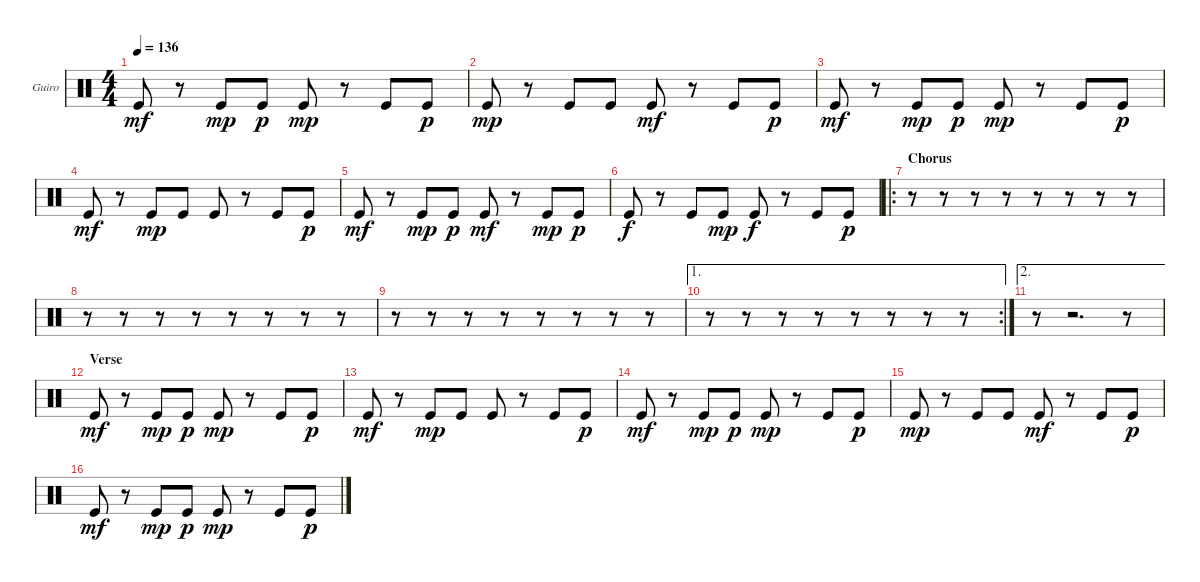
\bracketExtendMode groupsimilarinstruments
\firstSystemTrackNameOrientation horizontal
\otherSystemsTrackNameOrientation horizontal
\track ("Guiro" "Guiro") {instrument percussion}
\staff {score}
\articulation defaults
\ts (4 4)
\tempo 136
\clef neutral
\ks c "Kick (hit)".8{dy mf}
r.8 "Kick (hit)".8{dy mp} "Kick (hit)".8{dy p} "Kick (hit)".8{dy mp} r.8 "Kick (hit)".8 "Kick (hit)".8{dy p} |
"Kick (hit)".8{dy mp} r.8 "Kick (hit)".8 "Kick (hit)".8 "Kick (hit)".8{dy mf} r.8 "Kick (hit)".8 "Kick (hit)".8{dy p} |
"Kick (hit)".8{dy mf} r.8 "Kick (hit)".8{dy mp} "Kick (hit)".8{dy p} "Kick (hit)".8{dy mp} r.8 "Kick (hit)".8 "Kick (hit)".8{dy p} |
"Kick (hit)".8{dy mf} r.8 "Kick (hit)".8{dy mp} "Kick (hit)".8 "Kick (hit)".8 r.8 "Kick (hit)".8 "Kick (hit)".8{dy p} |
"Kick (hit)".8{dy mf} r.8 "Kick (hit)".8{dy mp} "Kick (hit)".8{dy p} "Kick (hit)".8{dy mf} r.8 "Kick (hit)".8{dy mp} "Kick (hit)".8{dy p} |
"Kick (hit)".8{dy f} r.8 "Kick (hit)".8 "Kick (hit)".8{dy mp} "Kick (hit)".8{dy f} r.8 "Kick (hit)".8 "Kick (hit)".8{dy p} |
\ro
\section ("" "Chorus")
r.8 r.8 r.8 r.8 r.8 r.8 r.8 r.8 |
r.8 r.8 r.8 r.8 r.8 r.8 r.8 r.8 |
r.8 r.8 r.8 r.8 r.8 r.8 r.8 r.8 |
\ae 1
\rc 2
r.8 r.8 r.8 r.8 r.8 r.8 r.8 r.8 |
\ae 2
r.8 r.2{d} r.8 |
\section ("" "Verse")
"Kick (hit)".8{dy mf} r.8 "Kick (hit)".8{dy mp} "Kick (hit)".8{dy p} "Kick (hit)".8{dy mp} r.8 "Kick (hit)".8 "Kick (hit)".8{dy p} |
"Kick (hit)".8{dy mf} r.8 "Kick (hit)".8{dy mp} "Kick (hit)".8 "Kick (hit)".8 r.8 "Kick (hit)".8 "Kick (hit)".8{dy p} |
"Kick (hit)".8{dy mf} r.8 "Kick (hit)".8{dy mp} "Kick (hit)".8{dy p} "Kick (hit)".8{dy mp} r.8 "Kick (hit)".8 "Kick (hit)".8{dy p} |
"Kick (hit)".8{dy mp} r.8 "Kick (hit)".8 "Kick (hit)".8 "Kick (hit)".8{dy mf} r.8 "Kick (hit)".8 "Kick (hit)".8{dy p} |
"Kick (hit)".8{dy mf} r.8 "Kick (hit)".8{dy mp} "Kick (hit)".8{dy p} "Kick (hit)".8{dy mp} r.8 "Kick (hit)".8 "Kick (hit)".8{dy p}
